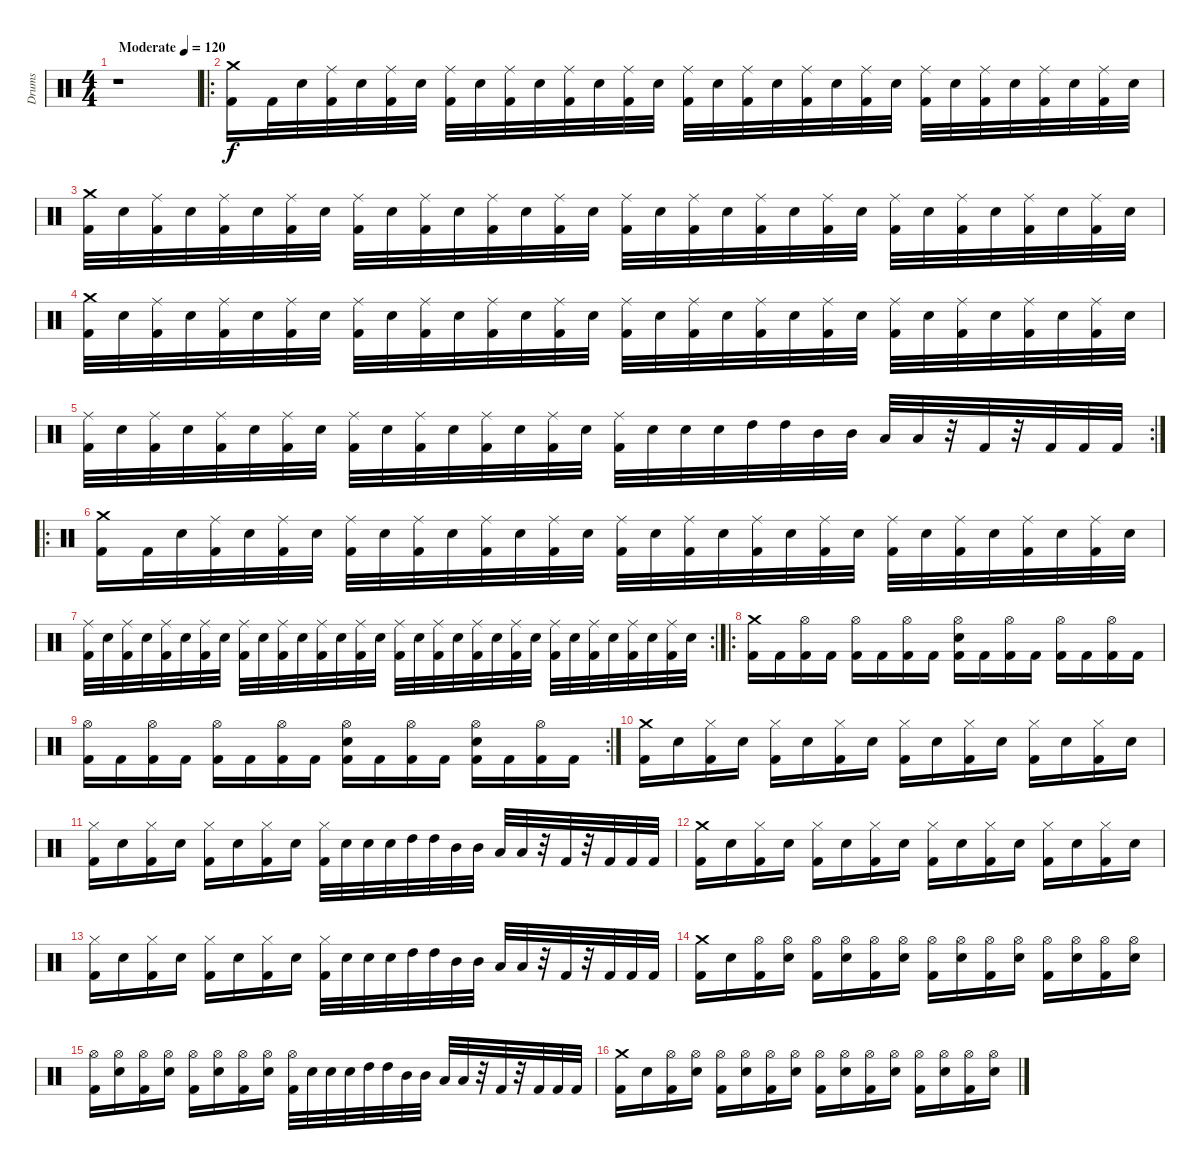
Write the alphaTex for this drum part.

\track ("Drums" "Drums") {instrument percussion}
\staff {score}
\articulation defaults
\ts (4 4)
\tempo (120 "Moderate")
\clef neutral
\ks c
r.1{dy f} |
\ro
("Kick (hit) 2" "Crash medium (hit)").16 "Kick (hit) 2".32 "Electric Snare (hit)".32 ("Kick (hit) 2" "Ride (middle)").32 "Electric Snare (hit)".32 ("Kick (hit) 2" "Ride (middle)").32 "Electric Snare (hit)".32 ("Kick (hit) 2" "Ride (middle)").32 "Electric Snare (hit)".32 ("Kick (hit) 2" "Ride (middle)").32 "Electric Snare (hit)".32 ("Kick (hit) 2" "Ride (middle)").32 "Electric Snare (hit)".32 ("Kick (hit) 2" "Ride (middle)").32 "Electric Snare (hit)".32 ("Kick (hit) 2" "Ride (middle)").32 "Electric Snare (hit)".32 ("Kick (hit) 2" "Ride (middle)").32 "Electric Snare (hit)".32 ("Kick (hit) 2" "Ride (middle)").32 "Electric Snare (hit)".32 ("Kick (hit) 2" "Ride (middle)").32 "Electric Snare (hit)".32 ("Kick (hit) 2" "Ride (middle)").32 "Electric Snare (hit)".32 ("Kick (hit) 2" "Ride (middle)").32 "Electric Snare (hit)".32 ("Kick (hit) 2" "Ride (middle)").32 "Electric Snare (hit)".32 ("Kick (hit) 2" "Ride (middle)").32 "Electric Snare (hit)".32 |
("Kick (hit) 2" "Crash medium (hit)").32 "Electric Snare (hit)".32 ("Kick (hit) 2" "Ride (middle)").32 "Electric Snare (hit)".32 ("Kick (hit) 2" "Ride (middle)").32 "Electric Snare (hit)".32 ("Kick (hit) 2" "Ride (middle)").32 "Electric Snare (hit)".32 ("Kick (hit) 2" "Ride (middle)").32 "Electric Snare (hit)".32 ("Kick (hit) 2" "Ride (middle)").32 "Electric Snare (hit)".32 ("Kick (hit) 2" "Ride (middle)").32 "Electric Snare (hit)".32 ("Kick (hit) 2" "Ride (middle)").32 "Electric Snare (hit)".32 ("Kick (hit) 2" "Ride (middle)").32 "Electric Snare (hit)".32 ("Kick (hit) 2" "Ride (middle)").32 "Electric Snare (hit)".32 ("Kick (hit) 2" "Ride (middle)").32 "Electric Snare (hit)".32 ("Kick (hit) 2" "Ride (middle)").32 "Electric Snare (hit)".32 ("Kick (hit) 2" "Ride (middle)").32 "Electric Snare (hit)".32 ("Kick (hit) 2" "Ride (middle)").32 "Electric Snare (hit)".32 ("Kick (hit) 2" "Ride (middle)").32 "Electric Snare (hit)".32 ("Kick (hit) 2" "Ride (middle)").32 "Electric Snare (hit)".32 |
("Kick (hit) 2" "Crash medium (hit)").32 "Electric Snare (hit)".32 ("Kick (hit) 2" "Ride (middle)").32 "Electric Snare (hit)".32 ("Kick (hit) 2" "Ride (middle)").32 "Electric Snare (hit)".32 ("Kick (hit) 2" "Ride (middle)").32 "Electric Snare (hit)".32 ("Kick (hit) 2" "Ride (middle)").32 "Electric Snare (hit)".32 ("Kick (hit) 2" "Ride (middle)").32 "Electric Snare (hit)".32 ("Kick (hit) 2" "Ride (middle)").32 "Electric Snare (hit)".32 ("Kick (hit) 2" "Ride (middle)").32 "Electric Snare (hit)".32 ("Kick (hit) 2" "Ride (middle)").32 "Electric Snare (hit)".32 ("Kick (hit) 2" "Ride (middle)").32 "Electric Snare (hit)".32 ("Kick (hit) 2" "Ride (middle)").32 "Electric Snare (hit)".32 ("Kick (hit) 2" "Ride (middle)").32 "Electric Snare (hit)".32 ("Kick (hit) 2" "Ride (middle)").32 "Electric Snare (hit)".32 ("Kick (hit) 2" "Ride (middle)").32 "Electric Snare (hit)".32 ("Kick (hit) 2" "Ride (middle)").32 "Electric Snare (hit)".32 ("Kick (hit) 2" "Ride (middle)").32 "Electric Snare (hit)".32 |
\rc 2
("Kick (hit) 2" "Ride (middle)").32 "Electric Snare (hit)".32 ("Kick (hit) 2" "Ride (middle)").32 "Electric Snare (hit)".32 ("Kick (hit) 2" "Ride (middle)").32 "Electric Snare (hit)".32 ("Kick (hit) 2" "Ride (middle)").32 "Electric Snare (hit)".32 ("Kick (hit) 2" "Ride (middle)").32 "Electric Snare (hit)".32 ("Kick (hit) 2" "Ride (middle)").32 "Electric Snare (hit)".32 ("Kick (hit) 2" "Ride (middle)").32 "Electric Snare (hit)".32 ("Kick (hit) 2" "Ride (middle)").32 "Electric Snare (hit)".32 ("Kick (hit) 2" "Ride (middle)").32 "Electric Snare (hit)".32 "Electric Snare (hit)".32 "Electric Snare (hit)".32 "High Tom (hit)".32 "High Tom (hit)".32 "Mid Tom (hit)".32 "Mid Tom (hit)".32 "Low Tom (hit)".32 "Low Tom (hit)".32 r.32 "Kick (hit) 2".32 r.32 "Kick (hit) 2".32 "Kick (hit) 2".32 "Kick (hit) 2".32 |
\ro
("Kick (hit) 2" "Crash medium (hit)").16 "Kick (hit) 2".32 "Electric Snare (hit)".32 ("Kick (hit) 2" "Ride (middle)").32 "Electric Snare (hit)".32 ("Kick (hit) 2" "Ride (middle)").32 "Electric Snare (hit)".32 ("Kick (hit) 2" "Ride (middle)").32 "Electric Snare (hit)".32 ("Kick (hit) 2" "Ride (middle)").32 "Electric Snare (hit)".32 ("Kick (hit) 2" "Ride (middle)").32 "Electric Snare (hit)".32 ("Kick (hit) 2" "Ride (middle)").32 "Electric Snare (hit)".32 ("Kick (hit) 2" "Ride (middle)").32 "Electric Snare (hit)".32 ("Kick (hit) 2" "Ride (middle)").32 "Electric Snare (hit)".32 ("Kick (hit) 2" "Ride (middle)").32 "Electric Snare (hit)".32 ("Kick (hit) 2" "Ride (middle)").32 "Electric Snare (hit)".32 ("Kick (hit) 2" "Ride (middle)").32 "Electric Snare (hit)".32 ("Kick (hit) 2" "Ride (middle)").32 "Electric Snare (hit)".32 ("Kick (hit) 2" "Ride (middle)").32 "Electric Snare (hit)".32 ("Kick (hit) 2" "Ride (middle)").32 "Electric Snare (hit)".32 |
\rc 2
("Kick (hit) 2" "Ride (middle)").32 "Electric Snare (hit)".32 ("Kick (hit) 2" "Ride (middle)").32 "Electric Snare (hit)".32 ("Kick (hit) 2" "Ride (middle)").32 "Electric Snare (hit)".32 ("Kick (hit) 2" "Ride (middle)").32 "Electric Snare (hit)".32 ("Kick (hit) 2" "Ride (middle)").32 "Electric Snare (hit)".32 ("Kick (hit) 2" "Ride (middle)").32 "Electric Snare (hit)".32 ("Kick (hit) 2" "Ride (middle)").32 "Electric Snare (hit)".32 ("Kick (hit) 2" "Ride (middle)").32 "Electric Snare (hit)".32 ("Kick (hit) 2" "Ride (middle)").32 "Electric Snare (hit)".32 ("Kick (hit) 2" "Ride (middle)").32 "Electric Snare (hit)".32 ("Kick (hit) 2" "Ride (middle)").32 "Electric Snare (hit)".32 ("Kick (hit) 2" "Ride (middle)").32 "Electric Snare (hit)".32 ("Kick (hit) 2" "Ride (middle)").32 "Electric Snare (hit)".32 ("Kick (hit) 2" "Ride (middle)").32 "Electric Snare (hit)".32 ("Kick (hit) 2" "Ride (middle)").32 "Electric Snare (hit)".32 ("Kick (hit) 2" "Ride (middle)").32 "Electric Snare (hit)".32 |
\ro
("Crash medium (hit)" "Kick (hit) 2").16 "Kick (hit) 2".16 ("Hi-Hat (open)" "Kick (hit) 2").16 "Kick (hit) 2".16 ("Hi-Hat (open)" "Kick (hit) 2").16 "Kick (hit) 2".16 ("Hi-Hat (open)" "Kick (hit) 2").16 "Kick (hit) 2".16 ("Hi-Hat (open)" "Electric Snare (hit)" "Kick (hit) 2").16 "Kick (hit) 2".16 ("Hi-Hat (open)" "Kick (hit) 2").16 "Kick (hit) 2".16 ("Hi-Hat (open)" "Kick (hit) 2").16 "Kick (hit) 2".16 ("Hi-Hat (open)" "Kick (hit) 2").16 "Kick (hit) 2".16 |
\rc 2
("Hi-Hat (open)" "Kick (hit) 2").16 "Kick (hit) 2".16 ("Hi-Hat (open)" "Kick (hit) 2").16 "Kick (hit) 2".16 ("Hi-Hat (open)" "Kick (hit) 2").16 "Kick (hit) 2".16 ("Hi-Hat (open)" "Kick (hit) 2").16 "Kick (hit) 2".16 ("Hi-Hat (open)" "Electric Snare (hit)" "Kick (hit) 2").16 "Kick (hit) 2".16 ("Hi-Hat (open)" "Kick (hit) 2").16 "Kick (hit) 2".16 ("Hi-Hat (open)" "Electric Snare (hit)" "Kick (hit) 2").16 "Kick (hit) 2".16 ("Hi-Hat (open)" "Kick (hit) 2").16 "Kick (hit) 2".16 |
("Crash medium (hit)" "Kick (hit) 2").16 "Electric Snare (hit)".16 ("Hi-Hat (closed)" "Kick (hit) 2").16 "Electric Snare (hit)".16 ("Hi-Hat (closed)" "Kick (hit) 2").16 "Electric Snare (hit)".16 ("Hi-Hat (closed)" "Kick (hit) 2").16 "Electric Snare (hit)".16 ("Hi-Hat (closed)" "Kick (hit) 2").16 "Electric Snare (hit)".16 ("Hi-Hat (closed)" "Kick (hit) 2").16 "Electric Snare (hit)".16 ("Hi-Hat (closed)" "Kick (hit) 2").16 "Electric Snare (hit)".16 ("Hi-Hat (closed)" "Kick (hit) 2").16 "Electric Snare (hit)".16 |
("Hi-Hat (closed)" "Kick (hit) 2").16 "Electric Snare (hit)".16 ("Hi-Hat (closed)" "Kick (hit) 2").16 "Electric Snare (hit)".16 ("Hi-Hat (closed)" "Kick (hit) 2").16 "Electric Snare (hit)".16 ("Hi-Hat (closed)" "Kick (hit) 2").16 "Electric Snare (hit)".16 ("Hi-Hat (closed)" "Kick (hit) 2").32 "Electric Snare (hit)".32 "Electric Snare (hit)".32 "Electric Snare (hit)".32 "High Tom (hit)".32 "High Tom (hit)".32 "Mid Tom (hit)".32 "Mid Tom (hit)".32 "Low Tom (hit)".32 "Low Tom (hit)".32 r.32 "Kick (hit) 2".32 r.32 "Kick (hit) 2".32 "Kick (hit) 2".32 "Kick (hit) 2".32 |
("Crash medium (hit)" "Kick (hit) 2").16 "Electric Snare (hit)".16 ("Hi-Hat (closed)" "Kick (hit) 2").16 "Electric Snare (hit)".16 ("Hi-Hat (closed)" "Kick (hit) 2").16 "Electric Snare (hit)".16 ("Hi-Hat (closed)" "Kick (hit) 2").16 "Electric Snare (hit)".16 ("Hi-Hat (closed)" "Kick (hit) 2").16 "Electric Snare (hit)".16 ("Hi-Hat (closed)" "Kick (hit) 2").16 "Electric Snare (hit)".16 ("Hi-Hat (closed)" "Kick (hit) 2").16 "Electric Snare (hit)".16 ("Hi-Hat (closed)" "Kick (hit) 2").16 "Electric Snare (hit)".16 |
("Hi-Hat (closed)" "Kick (hit) 2").16 "Electric Snare (hit)".16 ("Hi-Hat (closed)" "Kick (hit) 2").16 "Electric Snare (hit)".16 ("Hi-Hat (closed)" "Kick (hit) 2").16 "Electric Snare (hit)".16 ("Hi-Hat (closed)" "Kick (hit) 2").16 "Electric Snare (hit)".16 ("Hi-Hat (closed)" "Kick (hit) 2").32 "Electric Snare (hit)".32 "Electric Snare (hit)".32 "Electric Snare (hit)".32 "High Tom (hit)".32 "High Tom (hit)".32 "Mid Tom (hit)".32 "Mid Tom (hit)".32 "Low Tom (hit)".32 "Low Tom (hit)".32 r.32 "Kick (hit) 2".32 r.32 "Kick (hit) 2".32 "Kick (hit) 2".32 "Kick (hit) 2".32 |
("Crash medium (hit)" "Kick (hit) 2").16 "Electric Snare (hit)".16 ("Hi-Hat (open)" "Kick (hit) 2").16 ("Hi-Hat (open)" "Electric Snare (hit)").16 ("Hi-Hat (open)" "Kick (hit) 2").16 ("Hi-Hat (open)" "Electric Snare (hit)").16 ("Hi-Hat (open)" "Kick (hit) 2").16 ("Hi-Hat (open)" "Electric Snare (hit)").16 ("Hi-Hat (open)" "Kick (hit) 2").16 ("Hi-Hat (open)" "Electric Snare (hit)").16 ("Hi-Hat (open)" "Kick (hit) 2").16 ("Hi-Hat (open)" "Electric Snare (hit)").16 ("Hi-Hat (open)" "Kick (hit) 2").16 ("Hi-Hat (open)" "Electric Snare (hit)").16 ("Hi-Hat (open)" "Kick (hit) 2").16 ("Hi-Hat (open)" "Electric Snare (hit)").16 |
("Hi-Hat (open)" "Kick (hit) 2").16 ("Hi-Hat (open)" "Electric Snare (hit)").16 ("Hi-Hat (open)" "Kick (hit) 2").16 ("Hi-Hat (open)" "Electric Snare (hit)").16 ("Hi-Hat (open)" "Kick (hit) 2").16 ("Hi-Hat (open)" "Electric Snare (hit)").16 ("Hi-Hat (open)" "Kick (hit) 2").16 ("Hi-Hat (open)" "Electric Snare (hit)").16 ("Hi-Hat (open)" "Kick (hit) 2").32 "Electric Snare (hit)".32 "Electric Snare (hit)".32 "Electric Snare (hit)".32 "High Tom (hit)".32 "High Tom (hit)".32 "Mid Tom (hit)".32 "Mid Tom (hit)".32 "Low Tom (hit)".32 "Low Tom (hit)".32 r.32 "Kick (hit) 2".32 r.32 "Kick (hit) 2".32 "Kick (hit) 2".32 "Kick (hit) 2".32 |
("Crash medium (hit)" "Kick (hit) 2").16 "Electric Snare (hit)".16 ("Hi-Hat (open)" "Kick (hit) 2").16 ("Hi-Hat (open)" "Electric Snare (hit)").16 ("Hi-Hat (open)" "Kick (hit) 2").16 ("Hi-Hat (open)" "Electric Snare (hit)").16 ("Hi-Hat (open)" "Kick (hit) 2").16 ("Hi-Hat (open)" "Electric Snare (hit)").16 ("Hi-Hat (open)" "Kick (hit) 2").16 ("Hi-Hat (open)" "Electric Snare (hit)").16 ("Hi-Hat (open)" "Kick (hit) 2").16 ("Hi-Hat (open)" "Electric Snare (hit)").16 ("Hi-Hat (open)" "Kick (hit) 2").16 ("Hi-Hat (open)" "Electric Snare (hit)").16 ("Hi-Hat (open)" "Kick (hit) 2").16 ("Hi-Hat (open)" "Electric Snare (hit)").16
